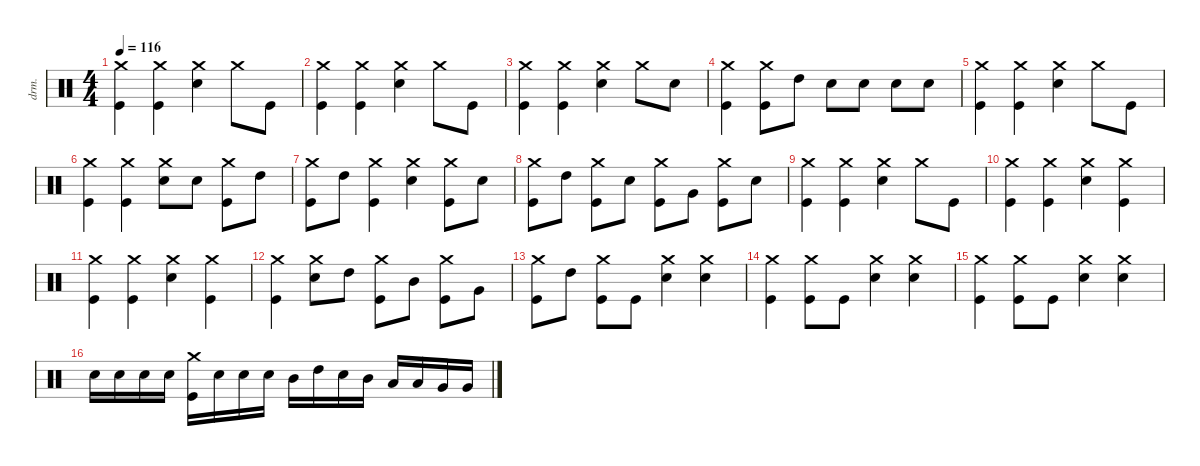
\defaultSystemsLayout 4
\hideDynamics
\bracketExtendMode nobrackets
\otherSystemsTrackNameOrientation horizontal
\track ("Drum" "drm.") {instrument percussion}
\staff {score}
\articulation defaults
\ts (4 4)
\tempo 116
\clef neutral
\ks c
("Kick (hit)" "Crash medium (hit)").4{dy f beam Down} ("Kick (hit)" "Crash medium (hit)").4{beam Down} ("Snare (hit) 2" "Crash medium (hit)").4{beam Down} "Crash medium (hit)".8{beam Down} "Kick (hit)".8{beam Down} |
("Kick (hit)" "Crash medium (hit)").4{beam Down} ("Kick (hit)" "Crash medium (hit)").4{beam Down} ("Snare (hit) 2" "Crash medium (hit)").4{beam Down} "Crash medium (hit)".8{beam Down} "Kick (hit)".8{beam Down} |
("Kick (hit)" "Crash medium (hit)").4{beam Down} ("Kick (hit)" "Crash medium (hit)").4{beam Down} ("Snare (hit) 2" "Crash medium (hit)").4{beam Down} "Crash medium (hit)".8{beam Down} "Snare (hit) 2".8{beam Down} |
("Kick (hit)" "Crash medium (hit)").4{beam Down} ("Kick (hit)" "Crash medium (hit)").8{beam Down} "High Tom (hit)".8{beam Down} "Snare (hit) 2".8{beam Down} "Snare (hit) 2".8{beam Down} "Snare (hit) 2".8{beam Down} "Snare (hit) 2".8{beam Down} |
("Kick (hit)" "Crash medium (hit)").4{beam Down} ("Kick (hit)" "Crash medium (hit)").4{beam Down} ("Snare (hit) 2" "Crash medium (hit)").4{beam Down} "Crash medium (hit)".8{beam Down} "Kick (hit)".8{beam Down} |
("Kick (hit)" "Crash medium (hit)").4{beam Down} ("Kick (hit)" "Crash medium (hit)").4{beam Down} ("Snare (hit) 2" "Crash medium (hit)").8{beam Down} "Snare (hit) 2".8{beam Down} ("Kick (hit)" "Crash medium (hit)").8{beam Down} "High Tom (hit)".8{beam Down} |
("Kick (hit)" "Crash medium (hit)").8{beam Down} "High Tom (hit)".8{beam Down} ("Kick (hit)" "Crash medium (hit)").4{beam Down} ("Snare (hit) 2" "Crash medium (hit)").4{beam Down} ("Kick (hit)" "Crash medium (hit)").8{beam Down} "Snare (hit) 2".8{beam Down} |
("Kick (hit)" "Crash medium (hit)").8{beam Down} "High Tom (hit)".8{beam Down} ("Kick (hit)" "Crash medium (hit)").8{beam Down} "Snare (hit) 2".8{beam Down} ("Kick (hit)" "Crash medium (hit)").8{beam Down} "Very Low Tom (hit)".8{beam Down} ("Kick (hit)" "Crash medium (hit)").8{beam Down} "Snare (hit) 2".8{beam Down} |
("Kick (hit)" "Crash medium (hit)").4{beam Down} ("Kick (hit)" "Crash medium (hit)").4{beam Down} ("Snare (hit) 2" "Crash medium (hit)").4{beam Down} "Crash medium (hit)".8{beam Down} "Kick (hit)".8{beam Down} |
("Kick (hit)" "Crash medium (hit)").4{beam Down} ("Kick (hit)" "Crash medium (hit)").4{beam Down} ("Snare (hit) 2" "Crash medium (hit)").4{beam Down} ("Kick (hit)" "Crash medium (hit)").4{beam Down} |
("Kick (hit)" "Crash medium (hit)").4{beam Down} ("Kick (hit)" "Crash medium (hit)").4{beam Down} ("Snare (hit) 2" "Crash medium (hit)").4{beam Down} ("Kick (hit)" "Crash medium (hit)").4{beam Down} |
("Kick (hit)" "Crash medium (hit)").4{beam Down} ("Snare (hit) 2" "Crash medium (hit)").8{beam Down} "High Tom (hit)".8{beam Down} ("Kick (hit)" "Crash medium (hit)").8{beam Down} "Mid Tom (hit)".8{beam Down} ("Kick (hit)" "Crash medium (hit)").8{beam Down} "Very Low Tom (hit)".8{beam Down} |
("Kick (hit)" "Crash medium (hit)").8{beam Down} "High Tom (hit)".8{beam Down} ("Kick (hit)" "Crash medium (hit)").8{beam Down} "Kick (hit)".8{beam Down} ("Snare (hit) 2" "Crash medium (hit)").4{beam Down} ("Snare (hit) 2" "Crash medium (hit)").4{beam Down} |
("Kick (hit)" "Crash medium (hit)").4{beam Down} ("Kick (hit)" "Crash medium (hit)").8{beam Down} "Kick (hit)".8{beam Down} ("Snare (hit) 2" "Crash medium (hit)").4{beam Down} ("Snare (hit) 2" "Crash medium (hit)").4{beam Down} |
("Kick (hit)" "Crash medium (hit)").4{beam Down} ("Kick (hit)" "Crash medium (hit)").8{beam Down} "Kick (hit)".8{beam Down} ("Snare (hit) 2" "Crash medium (hit)").4{beam Down} ("Snare (hit) 2" "Crash medium (hit)").4{beam Down} |
"Snare (hit) 2".16{beam Down} "Snare (hit) 2".16{beam Down} "Snare (hit) 2".16{beam Down} "Snare (hit) 2".16{beam Down} ("Kick (hit)" "Crash medium (hit)").16{beam Down} "Snare (hit) 2".16{beam Down} "Snare (hit) 2".16{beam Down} "Snare (hit) 2".16{beam Down} "Mid Tom (hit)".16{beam Down} "High Tom (hit)".16{beam Down} "Snare (hit) 2".16{beam Down} "Mid Tom (hit)".16{beam Down} "Low Tom (hit)".16{beam Up} "Low Tom (hit)".16{beam Up} "Very Low Tom (hit)".16{beam Up} "Very Low Tom (hit)".16{beam Up}
